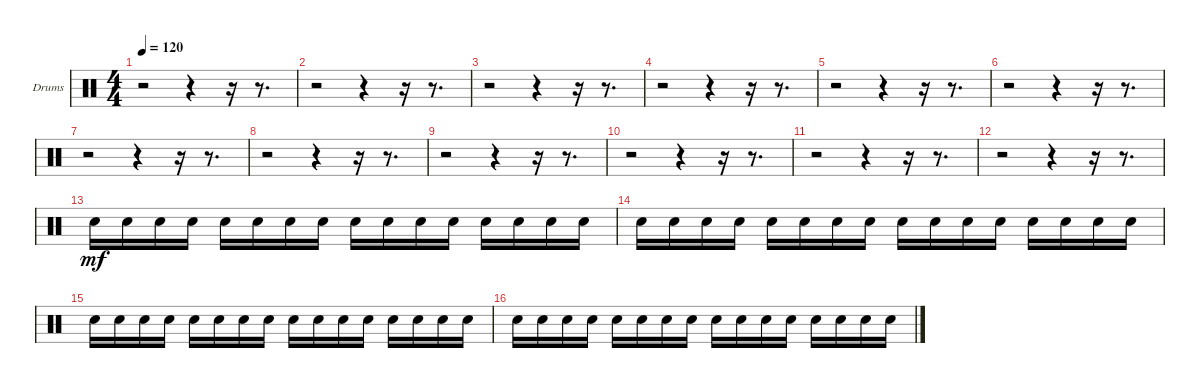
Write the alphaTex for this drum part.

\bracketExtendMode groupsimilarinstruments
\firstSystemTrackNameOrientation horizontal
\otherSystemsTrackNameOrientation horizontal
\track ("Drums" "Drums") {instrument percussion}
\staff {score}
\articulation defaults
\ts (4 4)
\tempo 120
\clef neutral
\ks c
r.2{dy mf} r.4 r.16 r.8{d} |
r.2 r.4 r.16 r.8{d} |
r.2 r.4 r.16 r.8{d} |
r.2 r.4 r.16 r.8{d} |
r.2 r.4 r.16 r.8{d} |
r.2 r.4 r.16 r.8{d} |
r.2 r.4 r.16 r.8{d} |
r.2 r.4 r.16 r.8{d} |
r.2 r.4 r.16 r.8{d} |
r.2 r.4 r.16 r.8{d} |
r.2 r.4 r.16 r.8{d} |
r.2 r.4 r.16 r.8{d} |
"Snare (hit) 2".16 "Snare (hit) 2".16 "Snare (hit) 2".16 "Snare (hit) 2".16 "Snare (hit) 2".16 "Snare (hit) 2".16 "Snare (hit) 2".16 "Snare (hit) 2".16 "Snare (hit) 2".16 "Snare (hit) 2".16 "Snare (hit) 2".16 "Snare (hit) 2".16 "Snare (hit) 2".16 "Snare (hit) 2".16 "Snare (hit) 2".16 "Snare (hit) 2".16 |
"Snare (hit) 2".16 "Snare (hit) 2".16 "Snare (hit) 2".16 "Snare (hit) 2".16 "Snare (hit) 2".16 "Snare (hit) 2".16 "Snare (hit) 2".16 "Snare (hit) 2".16 "Snare (hit) 2".16 "Snare (hit) 2".16 "Snare (hit) 2".16 "Snare (hit) 2".16 "Snare (hit) 2".16 "Snare (hit) 2".16 "Snare (hit) 2".16 "Snare (hit) 2".16 |
"Snare (hit) 2".16 "Snare (hit) 2".16 "Snare (hit) 2".16 "Snare (hit) 2".16 "Snare (hit) 2".16 "Snare (hit) 2".16 "Snare (hit) 2".16 "Snare (hit) 2".16 "Snare (hit) 2".16 "Snare (hit) 2".16 "Snare (hit) 2".16 "Snare (hit) 2".16 "Snare (hit) 2".16 "Snare (hit) 2".16 "Snare (hit) 2".16 "Snare (hit) 2".16 |
"Snare (hit) 2".16 "Snare (hit) 2".16 "Snare (hit) 2".16 "Snare (hit) 2".16 "Snare (hit) 2".16 "Snare (hit) 2".16 "Snare (hit) 2".16 "Snare (hit) 2".16 "Snare (hit) 2".16 "Snare (hit) 2".16 "Snare (hit) 2".16 "Snare (hit) 2".16 "Snare (hit) 2".16 "Snare (hit) 2".16 "Snare (hit) 2".16 "Snare (hit) 2".16
